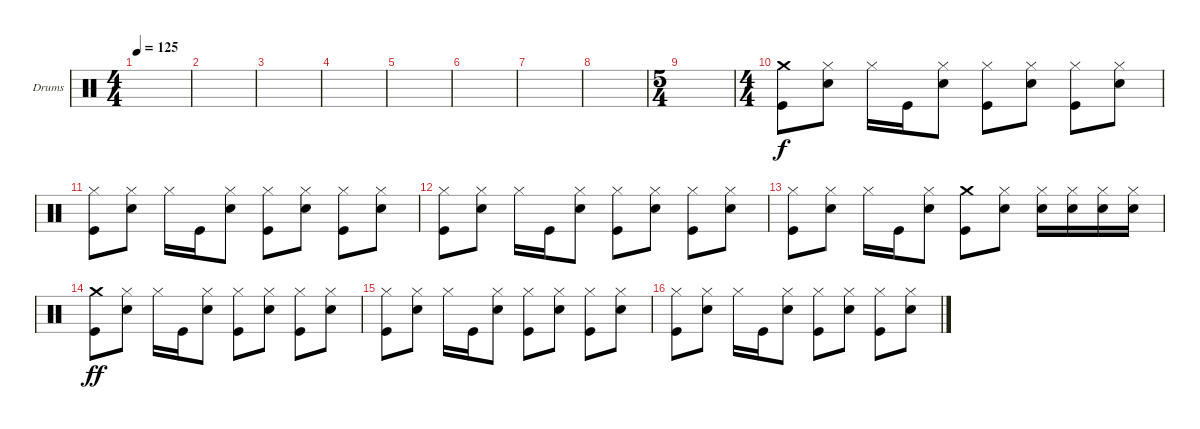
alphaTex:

\defaultSystemsLayout 4
\bracketExtendMode groupsimilarinstruments
\firstSystemTrackNameOrientation horizontal
\otherSystemsTrackNameOrientation horizontal
\track ("Drumkit" "Drums") {instrument percussion}
\staff {score}
\articulation defaults
\ts (4 4)
\tempo 125
\clef neutral
\ks c
|
|
|
|
|
|
|
|
\ts (5 4)
|
\ts (4 4)
("Kick (hit)" "Crash medium (hit)").8 ("Snare (hit) 2" "Hi-Hat (closed)").8 "Hi-Hat (closed)".16 "Kick (hit)".16 ("Snare (hit) 2" "Hi-Hat (closed)").8 ("Kick (hit)" "Hi-Hat (closed)").8 ("Snare (hit) 2" "Hi-Hat (closed)").8 ("Kick (hit)" "Hi-Hat (closed)").8 ("Snare (hit) 2" "Hi-Hat (closed)").8 |
("Kick (hit)" "Hi-Hat (closed)").8 ("Snare (hit) 2" "Hi-Hat (closed)").8 "Hi-Hat (closed)".16 "Kick (hit)".16 ("Snare (hit) 2" "Hi-Hat (closed)").8 ("Kick (hit)" "Hi-Hat (closed)").8 ("Snare (hit) 2" "Hi-Hat (closed)").8 ("Kick (hit)" "Hi-Hat (closed)").8 ("Snare (hit) 2" "Hi-Hat (closed)").8 |
("Kick (hit)" "Hi-Hat (closed)").8 ("Snare (hit) 2" "Hi-Hat (closed)").8 "Hi-Hat (closed)".16 "Kick (hit)".16 ("Snare (hit) 2" "Hi-Hat (closed)").8 ("Kick (hit)" "Hi-Hat (closed)").8 ("Snare (hit) 2" "Hi-Hat (closed)").8 ("Kick (hit)" "Hi-Hat (closed)").8 ("Snare (hit) 2" "Hi-Hat (closed)").8 |
("Kick (hit)" "Hi-Hat (closed)").8{dy f} ("Snare (hit) 2" "Hi-Hat (closed)").8 "Hi-Hat (closed)".16 "Kick (hit)".16 ("Snare (hit) 2" "Hi-Hat (closed)").8 ("Kick (hit)" "Crash medium (hit)").8 ("Snare (hit) 2" "Hi-Hat (closed)").8 ("Snare (hit) 2" "Hi-Hat (closed)").16 ("Snare (hit) 2" "Hi-Hat (closed)").16 ("Snare (hit) 2" "Hi-Hat (closed)").16 ("Snare (hit) 2" "Hi-Hat (closed)").16 |
("Kick (hit)" "Crash medium (hit)").8{dy ff} ("Snare (hit) 2" "Hi-Hat (closed)").8 "Hi-Hat (closed)".16 "Kick (hit)".16 ("Snare (hit) 2" "Hi-Hat (closed)").8 ("Kick (hit)" "Hi-Hat (closed)").8 ("Snare (hit) 2" "Hi-Hat (closed)").8 ("Kick (hit)" "Hi-Hat (closed)").8 ("Snare (hit) 2" "Hi-Hat (closed)").8 |
("Kick (hit)" "Hi-Hat (closed)").8 ("Snare (hit) 2" "Hi-Hat (closed)").8 "Hi-Hat (closed)".16 "Kick (hit)".16 ("Snare (hit) 2" "Hi-Hat (closed)").8 ("Kick (hit)" "Hi-Hat (closed)").8 ("Snare (hit) 2" "Hi-Hat (closed)").8 ("Kick (hit)" "Hi-Hat (closed)").8 ("Snare (hit) 2" "Hi-Hat (closed)").8 |
("Kick (hit)" "Hi-Hat (closed)").8 ("Snare (hit) 2" "Hi-Hat (closed)").8 "Hi-Hat (closed)".16 "Kick (hit)".16 ("Snare (hit) 2" "Hi-Hat (closed)").8 ("Kick (hit)" "Hi-Hat (closed)").8 ("Snare (hit) 2" "Hi-Hat (closed)").8 ("Kick (hit)" "Hi-Hat (closed)").8 ("Snare (hit) 2" "Hi-Hat (closed)").8
